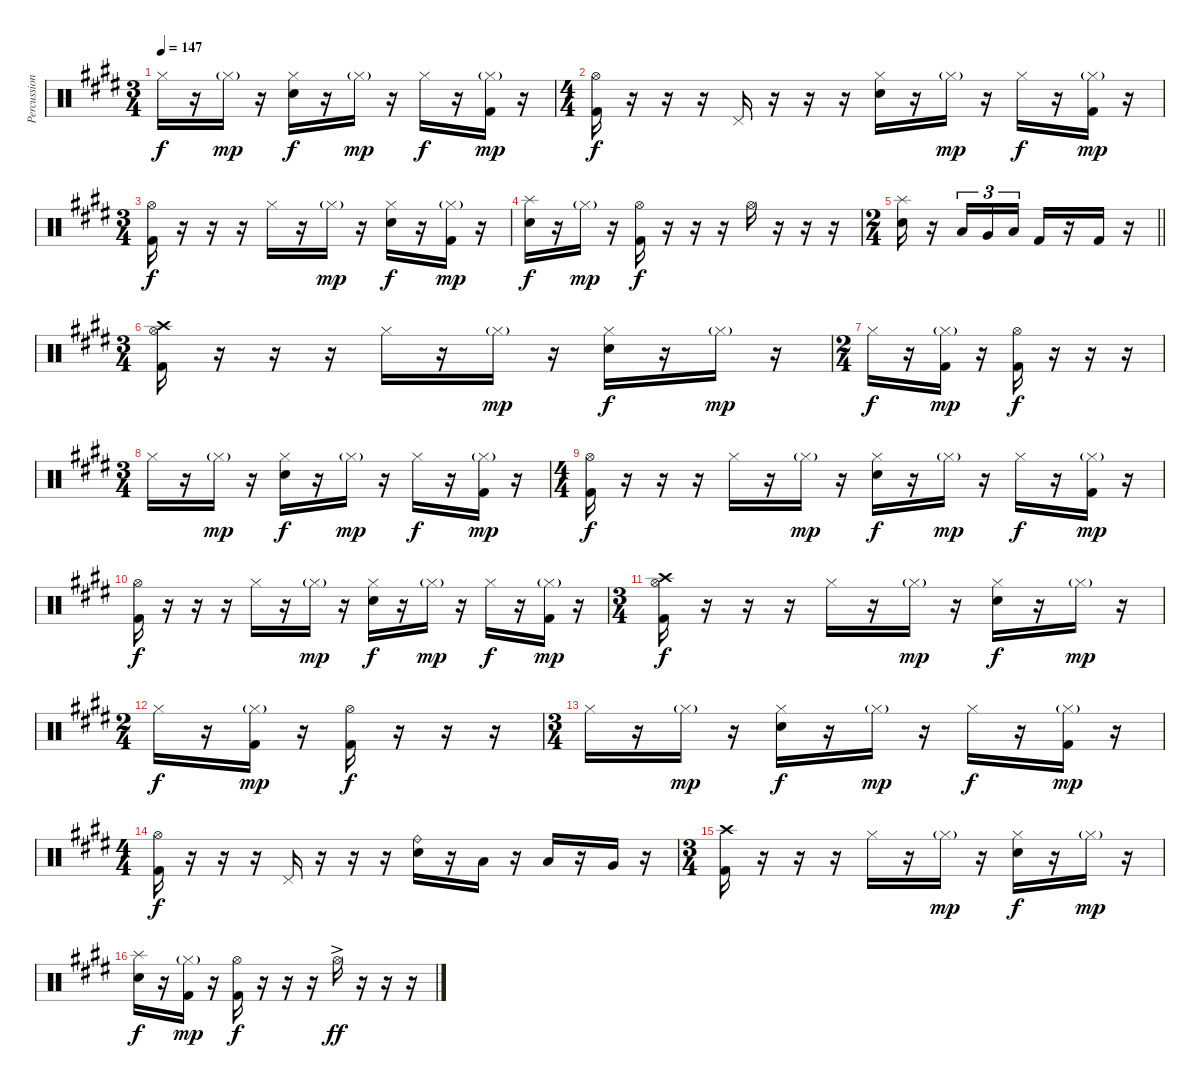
\track ("Percussion" "Percussion") {instrument percussion}
\staff {score}
\articulation defaults
\ts (3 4)
\tempo 147
\clef neutral
\ks e "Hi-Hat (closed)".16{dy f}
r.16 "Hi-Hat (closed)"{g}.16{dy mp} r.16 ("Hi-Hat (closed)" "Snare (hit) 2").16{dy f} r.16 "Hi-Hat (closed)"{g}.16{dy mp} r.16 "Hi-Hat (closed)".16{dy f} r.16 ("Hi-Hat (closed)"{g} "Kick (hit) 2").16{dy mp} r.16 |
\ts (4 4)
("Hi-Hat (open)" "Kick (hit) 2").16{dy f} r.16 r.16 r.16 "Pedal Hi-Hat (hit)".16 r.16 r.16 r.16 ("Hi-Hat (closed)" "Snare (hit) 2").16 r.16 "Hi-Hat (closed)"{g}.16{dy mp} r.16 "Hi-Hat (closed)".16{dy f} r.16 ("Hi-Hat (closed)"{g} "Kick (hit) 2").16{dy mp} r.16 |
\ts (3 4)
("Hi-Hat (open)" "Kick (hit) 2").16{dy f} r.16 r.16 r.16 "Hi-Hat (closed)".16 r.16 "Hi-Hat (closed)"{g}.16{dy mp} r.16 ("Hi-Hat (closed)" "Snare (hit) 2").16{dy f} r.16 ("Hi-Hat (closed)"{g} "Kick (hit) 2").16{dy mp} r.16 |
("Splash (hit)" "Snare (hit) 2").16{dy f} r.16 "Hi-Hat (closed)"{g}.16{dy mp} r.16 ("Hi-Hat (open)" "Kick (hit) 2").16{dy f} r.16 r.16 r.16 "Hi-Hat (open)".16 r.16 r.16 r.16 |
\ts (2 4)
\barLineRight lightlight
("Splash (hit)" "Snare (hit) 2").16 r.16 "Low Tom (hit)".16{tu (3 2)} "Very Low Tom (hit)".16{tu (3 2)} "Low Floor Tom (hit)".16{tu (3 2)} "Kick (hit) 2".16 r.16 "Kick (hit) 2".16 r.16 |
\ts (3 4)
("Hi-Hat (open)" "Crash high (hit)" "Kick (hit) 2").16 r.16 r.16 r.16 "Hi-Hat (closed)".16 r.16 "Hi-Hat (closed)"{g}.16{dy mp} r.16 ("Hi-Hat (closed)" "Snare (hit) 2").16{dy f} r.16 "Hi-Hat (closed)"{g}.16{dy mp} r.16 |
\ts (2 4)
"Hi-Hat (closed)".16{dy f} r.16 ("Hi-Hat (closed)"{g} "Kick (hit) 2").16{dy mp} r.16 ("Hi-Hat (open)" "Kick (hit) 2").16{dy f} r.16 r.16 r.16 |
\ts (3 4)
"Hi-Hat (closed)".16 r.16 "Hi-Hat (closed)"{g}.16{dy mp} r.16 ("Hi-Hat (closed)" "Snare (hit) 2").16{dy f} r.16 "Hi-Hat (closed)"{g}.16{dy mp} r.16 "Hi-Hat (closed)".16{dy f} r.16 ("Hi-Hat (closed)"{g} "Kick (hit) 2").16{dy mp} r.16 |
\ts (4 4)
("Hi-Hat (open)" "Kick (hit) 2").16{dy f} r.16 r.16 r.16 "Hi-Hat (closed)".16 r.16 "Hi-Hat (closed)"{g}.16{dy mp} r.16 ("Hi-Hat (closed)" "Snare (hit) 2").16{dy f} r.16 "Hi-Hat (closed)"{g}.16{dy mp} r.16 "Hi-Hat (closed)".16{dy f} r.16 ("Hi-Hat (closed)"{g} "Kick (hit) 2").16{dy mp} r.16 |
("Hi-Hat (open)" "Kick (hit) 2").16{dy f} r.16 r.16 r.16 "Hi-Hat (closed)".16 r.16 "Hi-Hat (closed)"{g}.16{dy mp} r.16 ("Hi-Hat (closed)" "Snare (hit) 2").16{dy f} r.16 "Hi-Hat (closed)"{g}.16{dy mp} r.16 "Hi-Hat (closed)".16{dy f} r.16 ("Hi-Hat (closed)"{g} "Kick (hit) 2").16{dy mp} r.16 |
\ts (3 4)
("Hi-Hat (open)" "Crash high (hit)" "Kick (hit) 2").16{dy f} r.16 r.16 r.16 "Hi-Hat (closed)".16 r.16 "Hi-Hat (closed)"{g}.16{dy mp} r.16 ("Hi-Hat (closed)" "Snare (hit) 2").16{dy f} r.16 "Hi-Hat (closed)"{g}.16{dy mp} r.16 |
\ts (2 4)
"Hi-Hat (closed)".16{dy f} r.16 ("Hi-Hat (closed)"{g} "Kick (hit) 2").16{dy mp} r.16 ("Hi-Hat (open)" "Kick (hit) 2").16{dy f} r.16 r.16 r.16 |
\ts (3 4)
"Hi-Hat (closed)".16 r.16 "Hi-Hat (closed)"{g}.16{dy mp} r.16 ("Hi-Hat (closed)" "Snare (hit) 2").16{dy f} r.16 "Hi-Hat (closed)"{g}.16{dy mp} r.16 "Hi-Hat (closed)".16{dy f} r.16 ("Hi-Hat (closed)"{g} "Kick (hit) 2").16{dy mp} r.16 |
\ts (4 4)
("Hi-Hat (open)" "Kick (hit) 2").16{dy f} r.16 r.16 r.16 "Pedal Hi-Hat (hit)".16 r.16 r.16 r.16 ("Ride (bell)" "Snare (hit) 2").16 r.16 "Low Tom (hit)".16 r.16 "Low Tom (hit)".16 r.16 "Very Low Tom (hit)".16 r.16 |
\ts (3 4)
("Crash high (hit)" "Kick (hit) 2").16 r.16 r.16 r.16 "Hi-Hat (closed)".16 r.16 "Hi-Hat (closed)"{g}.16{dy mp} r.16 ("Hi-Hat (closed)" "Snare (hit) 2").16{dy f} r.16 "Hi-Hat (closed)"{g}.16{dy mp} r.16 |
("Splash (hit)" "Snare (hit) 2").16{dy f} r.16 ("Hi-Hat (closed)"{g} "Kick (hit) 2").16{dy mp} r.16 ("Hi-Hat (open)" "Kick (hit) 2").16{dy f} r.16 r.16 r.16 "Hi-Hat (open)"{ac}.16{dy ff} r.16 r.16 r.16
